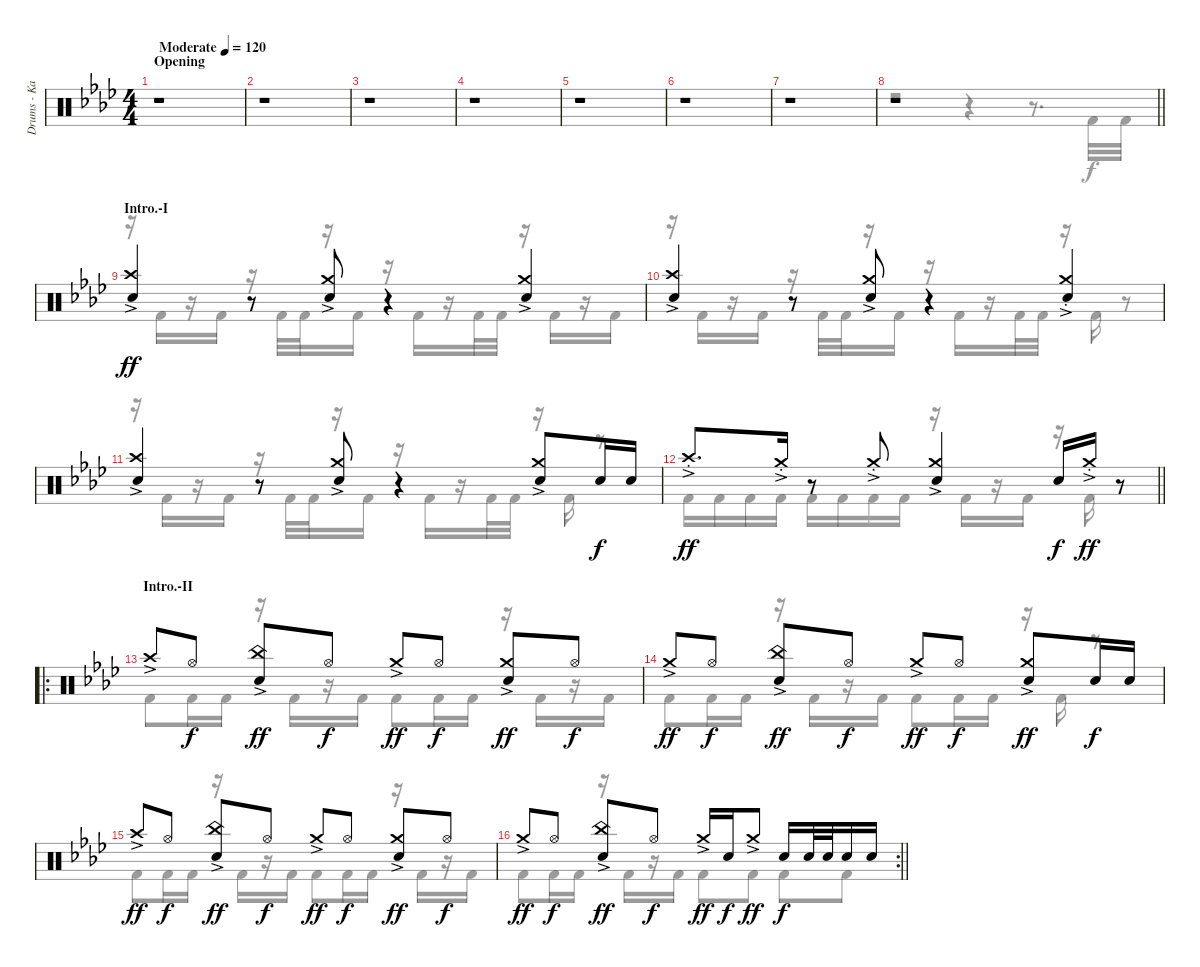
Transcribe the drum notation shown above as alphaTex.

\track ("Drums - Kai" "Drums - Ka") {instrument percussion}
\staff {score}
\articulation defaults
\voice
\ts (4 4)
\section ("" "Opening")
\tempo (120 "Moderate")
\clef neutral
\ks ab
r.1{dy ff} |
r.1 |
r.1 |
r.1 |
r.1 |
r.1 |
r.1 |
\barLineRight lightlight
r.1 |
\section ("" "Intro.-I")
("Crash high (hit)"{ac} "Snare (hit) 2").4 r.8 ("Crash medium (hit)"{ac} "Snare (hit) 2").8 r.4 ("Crash medium (hit)"{ac} "Snare (hit) 2").4 |
("Crash high (hit)"{ac} "Snare (hit) 2").4 r.8 ("Crash medium (hit)"{ac} "Snare (hit) 2").8 r.4 ("Crash medium (hit)"{ac st} "Snare (hit) 2").4 |
("Crash high (hit)"{ac} "Snare (hit) 2").4 r.8 ("Crash medium (hit)"{ac} "Snare (hit) 2").8 r.4 ("Crash medium (hit)"{ac} "Snare (hit) 2").8 "Snare (hit) 2".16{dy f} "Snare (hit) 2".16 |
\barLineRight lightlight "Crash high (hit)"{ac st}.8{d dy ff} "Crash medium (hit)"{ac st}.16
r.8 "Crash medium (hit)"{ac st}.8 ("Crash medium (hit)"{ac} "Snare (hit) 2").4 "Snare (hit) 2".16{dy f} "Crash medium (hit)"{ac st}.16{dy ff} r.8 |
\ro
\section ("" "Intro.-II")
"Crash high (hit)"{ac}.8 "Hi-Hat (open)".8{dy f} ("China (hit)"{ac} "Snare (hit) 2").8{dy ff} "Hi-Hat (open)".8{dy f} "Crash medium (hit)"{ac}.8{dy ff} "Hi-Hat (open)".8{dy f} ("Crash medium (hit)"{ac} "Snare (hit) 2").8{dy ff} "Hi-Hat (open)".8{dy f} |
"Crash medium (hit)"{ac}.8{dy ff} "Hi-Hat (open)".8{dy f} ("China (hit)"{ac} "Snare (hit) 2").8{dy ff} "Hi-Hat (open)".8{dy f} "Crash medium (hit)"{ac}.8{dy ff} "Hi-Hat (open)".8{dy f} ("Crash medium (hit)"{ac} "Snare (hit) 2").8{dy ff} "Snare (hit) 2".16{dy f} "Snare (hit) 2".16 |
"Crash high (hit)"{ac}.8{dy ff} "Hi-Hat (open)".8{dy f} ("China (hit)"{ac} "Snare (hit) 2").8{dy ff} "Hi-Hat (open)".8{dy f} "Crash medium (hit)"{ac}.8{dy ff} "Hi-Hat (open)".8{dy f} ("Crash medium (hit)"{ac} "Snare (hit) 2").8{dy ff} "Hi-Hat (open)".8{dy f} |
\rc 2
\barLineRight lightlight "Crash medium (hit)"{ac}.8{dy ff} "Hi-Hat (open)".8{dy f}
("China (hit)"{ac} "Snare (hit) 2").8{dy ff} "Hi-Hat (open)".8{dy f} "Crash medium (hit)"{ac}.16{dy ff} "Snare (hit) 2".16{dy f} "Crash medium (hit)"{ac}.8{dy ff} "Snare (hit) 2".16{dy f} "Snare (hit) 2".32 "Snare (hit) 2".32 "Snare (hit) 2".16 "Snare (hit) 2".16
\voice
\clef neutral
\ottava regular
\simile none
\ks ab
|
|
|
|
|
|
|
\barLineRight lightlight
r.2 r.4 r.8{d} "Kick (hit) 2".32 "Kick (hit) 2".32 |
r.16 "Kick (hit) 2".16 r.16 "Kick (hit) 2".16 r.16 "Kick (hit) 2".32 "Kick (hit) 2".32 r.16 "Kick (hit) 2".16 r.16 "Kick (hit) 2".16 r.16 "Kick (hit) 2".32 "Kick (hit) 2".32 r.16 "Kick (hit) 2".16 r.16 "Kick (hit) 2".16 |
r.16 "Kick (hit) 2".16 r.16 "Kick (hit) 2".16 r.16 "Kick (hit) 2".32 "Kick (hit) 2".32 r.16 "Kick (hit) 2".16 r.16 "Kick (hit) 2".16 r.16 "Kick (hit) 2".32 "Kick (hit) 2".32 r.16 "Kick (hit) 2".16 r.8 |
r.16 "Kick (hit) 2".16 r.16 "Kick (hit) 2".16 r.16 "Kick (hit) 2".32 "Kick (hit) 2".32 r.16 "Kick (hit) 2".16 r.16 "Kick (hit) 2".16 r.16 "Kick (hit) 2".32 "Kick (hit) 2".32 r.16 "Kick (hit) 2".16 r.8 |
\barLineRight lightlight "Kick (hit) 2".16 "Kick (hit) 2".16 "Kick (hit) 2".16 "Kick (hit) 2".16 "Kick (hit) 2".16 "Kick (hit) 2".16 "Kick (hit) 2".16 "Kick (hit) 2".16
r.16 "Kick (hit) 2".16 r.16 "Kick (hit) 2".16 r.16 "Kick (hit) 2".16 r.8 |
"Kick (hit) 2".8 "Kick (hit) 2".16 "Kick (hit) 2".16 r.16 "Kick (hit) 2".16 r.16 "Kick (hit) 2".16 "Kick (hit) 2".8 "Kick (hit) 2".16 "Kick (hit) 2".16 r.16 "Kick (hit) 2".16 r.16 "Kick (hit) 2".16 |
"Kick (hit) 2".8 "Kick (hit) 2".16 "Kick (hit) 2".16 r.16 "Kick (hit) 2".16 r.16 "Kick (hit) 2".16 "Kick (hit) 2".8 "Kick (hit) 2".16 "Kick (hit) 2".16 r.16 "Kick (hit) 2".16 r.8 |
"Kick (hit) 2".8 "Kick (hit) 2".16 "Kick (hit) 2".16 r.16 "Kick (hit) 2".16 r.16 "Kick (hit) 2".16 "Kick (hit) 2".8 "Kick (hit) 2".16 "Kick (hit) 2".16 r.16 "Kick (hit) 2".16 r.16 "Kick (hit) 2".16 |
\barLineRight lightlight "Kick (hit) 2".8 "Kick (hit) 2".16 "Kick (hit) 2".16
r.16 "Kick (hit) 2".16 r.16 "Kick (hit) 2".16 "Kick (hit) 2".8 "Kick (hit) 2".8 "Kick (hit) 2".8 "Kick (hit) 2".8
